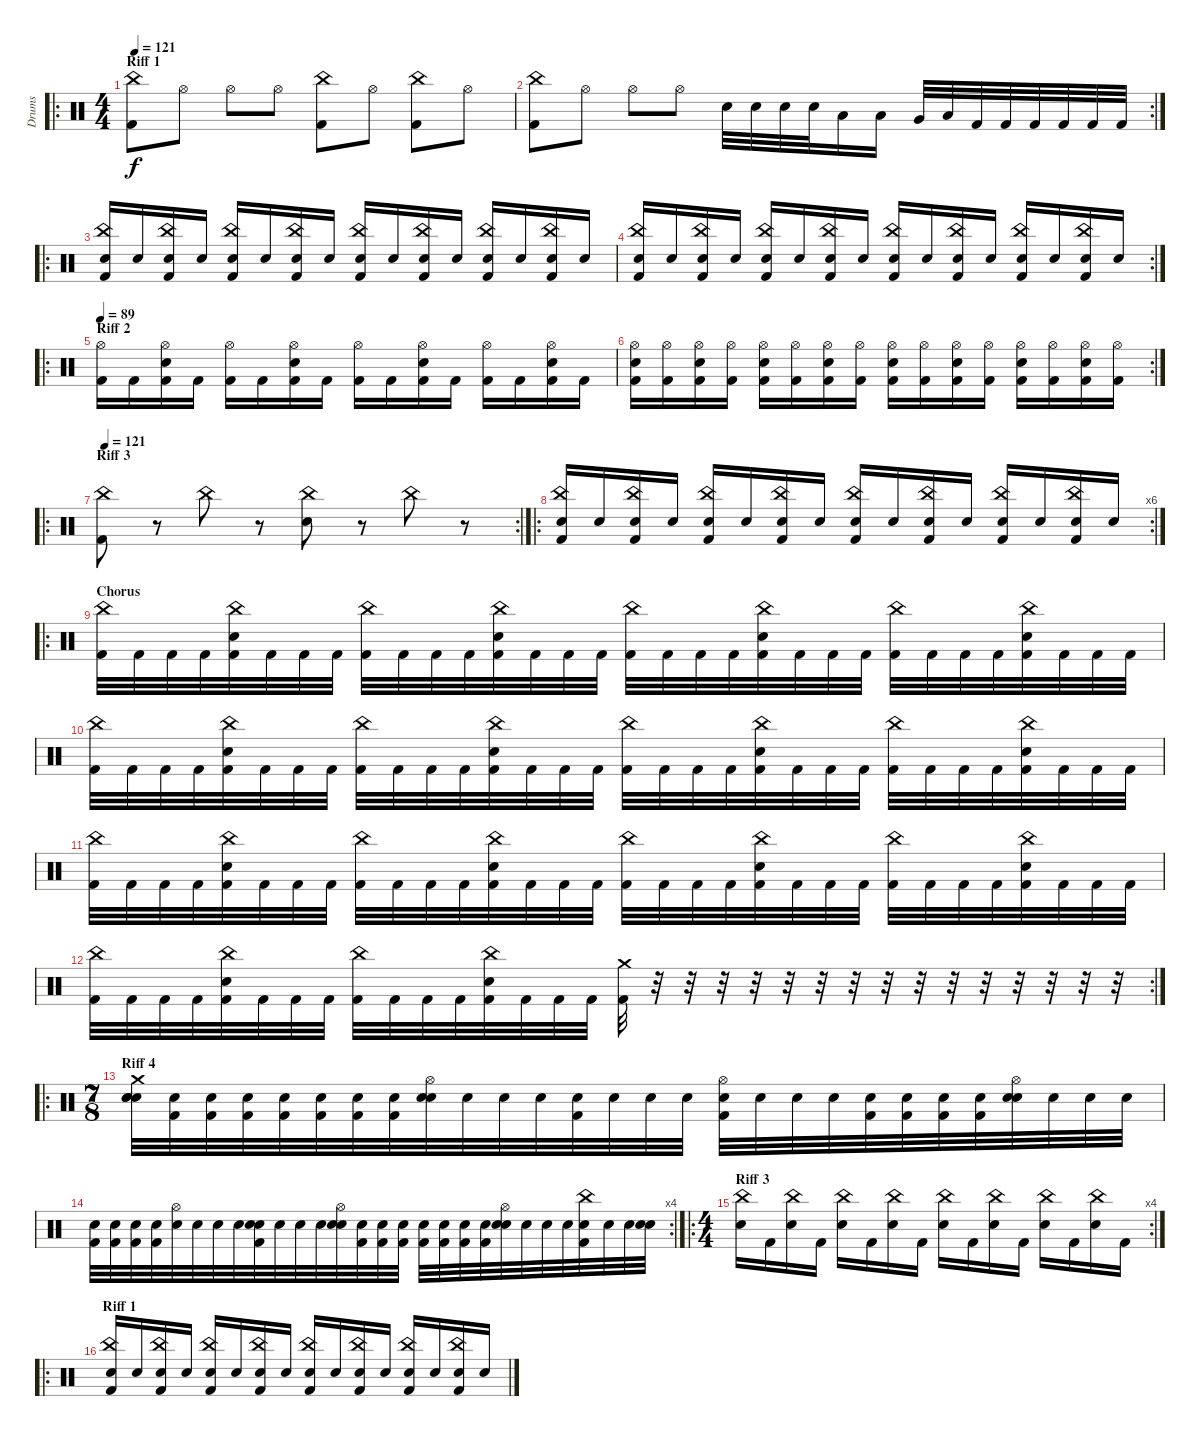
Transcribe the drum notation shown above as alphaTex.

\track ("Drums" "Drums") {instrument percussion}
\staff {score}
\articulation defaults
\ro
\ts (4 4)
\section ("" "Riff 1")
\tempo 121
\clef neutral
\ks c
("Kick (hit) 2" "China (hit)").8{dy f} "Hi-Hat (open)".8 "Hi-Hat (open)".8 "Hi-Hat (open)".8 ("Kick (hit) 2" "China (hit)").8 "Hi-Hat (open)".8 ("Kick (hit) 2" "China (hit)").8 "Hi-Hat (open)".8 |
\rc 2
("Kick (hit) 2" "China (hit)").8 "Hi-Hat (open)".8 "Hi-Hat (open)".8 "Hi-Hat (open)".8 "Snare (hit) 2".32 "Snare (hit) 2".32 "Snare (hit) 2".32 "Snare (hit) 2".32 "Low Tom (hit)".16 "Low Tom (hit)".16 "Very Low Tom (hit)".32 "Low Floor Tom (hit)".32 "Kick (hit) 2".32 "Kick (hit) 2".32 "Kick (hit) 2".32 "Kick (hit) 2".32 "Kick (hit) 2".32 "Kick (hit) 2".32 |
\ro
("China (hit)" "Kick (hit) 2" "Snare (hit) 2").16 "Snare (hit) 2".16 ("China (hit)" "Kick (hit) 2" "Snare (hit) 2").16 "Snare (hit) 2".16 ("China (hit)" "Kick (hit) 2" "Snare (hit) 2").16 "Snare (hit) 2".16 ("China (hit)" "Kick (hit) 2" "Snare (hit) 2").16 "Snare (hit) 2".16 ("China (hit)" "Kick (hit) 2" "Snare (hit) 2").16 "Snare (hit) 2".16 ("China (hit)" "Kick (hit) 2" "Snare (hit) 2").16 "Snare (hit) 2".16 ("China (hit)" "Kick (hit) 2" "Snare (hit) 2").16 "Snare (hit) 2".16 ("China (hit)" "Kick (hit) 2" "Snare (hit) 2").16 "Snare (hit) 2".16 |
\rc 2
("China (hit)" "Kick (hit) 2" "Snare (hit) 2").16 "Snare (hit) 2".16 ("China (hit)" "Kick (hit) 2" "Snare (hit) 2").16 "Snare (hit) 2".16 ("China (hit)" "Kick (hit) 2" "Snare (hit) 2").16 "Snare (hit) 2".16 ("China (hit)" "Kick (hit) 2" "Snare (hit) 2").16 "Snare (hit) 2".16 ("China (hit)" "Kick (hit) 2" "Snare (hit) 2").16 "Snare (hit) 2".16 ("China (hit)" "Kick (hit) 2" "Snare (hit) 2").16 "Snare (hit) 2".16 ("China (hit)" "Kick (hit) 2" "Snare (hit) 2").16 "Snare (hit) 2".16 ("China (hit)" "Kick (hit) 2" "Snare (hit) 2").16 "Snare (hit) 2".16 |
\ro
\section ("" "Riff 2")
\tempo 89
("Kick (hit) 2" "Hi-Hat (open)").16 "Kick (hit) 2".16 ("Kick (hit) 2" "Snare (hit) 2" "Hi-Hat (open)").16 "Kick (hit) 2".16 ("Kick (hit) 2" "Hi-Hat (open)").16 "Kick (hit) 2".16 ("Kick (hit) 2" "Snare (hit) 2" "Hi-Hat (open)").16 "Kick (hit) 2".16 ("Kick (hit) 2" "Hi-Hat (open)").16 "Kick (hit) 2".16 ("Kick (hit) 2" "Snare (hit) 2" "Hi-Hat (open)").16 "Kick (hit) 2".16 ("Kick (hit) 2" "Hi-Hat (open)").16 "Kick (hit) 2".16 ("Kick (hit) 2" "Snare (hit) 2" "Hi-Hat (open)").16 "Kick (hit) 2".16 |
\rc 2
("Kick (hit) 2" "Snare (hit) 2" "Hi-Hat (open)").16 ("Kick (hit) 2" "Hi-Hat (open)").16 ("Kick (hit) 2" "Snare (hit) 2" "Hi-Hat (open)").16 ("Kick (hit) 2" "Hi-Hat (open)").16 ("Kick (hit) 2" "Snare (hit) 2" "Hi-Hat (open)").16 ("Kick (hit) 2" "Hi-Hat (open)").16 ("Kick (hit) 2" "Snare (hit) 2" "Hi-Hat (open)").16 ("Kick (hit) 2" "Hi-Hat (open)").16 ("Kick (hit) 2" "Snare (hit) 2" "Hi-Hat (open)").16 ("Kick (hit) 2" "Hi-Hat (open)").16 ("Kick (hit) 2" "Snare (hit) 2" "Hi-Hat (open)").16 ("Kick (hit) 2" "Hi-Hat (open)").16 ("Kick (hit) 2" "Snare (hit) 2" "Hi-Hat (open)").16 ("Kick (hit) 2" "Hi-Hat (open)").16 ("Kick (hit) 2" "Snare (hit) 2" "Hi-Hat (open)").16 ("Kick (hit) 2" "Hi-Hat (open)").16 |
\ro
\rc 2
\section ("" "Riff 3")
\tempo 121
("Kick (hit) 2" "China (hit)").8 r.8 "China (hit)".8 r.8 ("Snare (hit) 2" "China (hit)").8 r.8 "China (hit)".8 r.8 |
\ro
\rc 6
("China (hit)" "Kick (hit) 2" "Snare (hit) 2").16 "Snare (hit) 2".16 ("China (hit)" "Kick (hit) 2" "Snare (hit) 2").16 "Snare (hit) 2".16 ("China (hit)" "Kick (hit) 2" "Snare (hit) 2").16 "Snare (hit) 2".16 ("China (hit)" "Kick (hit) 2" "Snare (hit) 2").16 "Snare (hit) 2".16 ("China (hit)" "Kick (hit) 2" "Snare (hit) 2").16 "Snare (hit) 2".16 ("China (hit)" "Kick (hit) 2" "Snare (hit) 2").16 "Snare (hit) 2".16 ("China (hit)" "Kick (hit) 2" "Snare (hit) 2").16 "Snare (hit) 2".16 ("China (hit)" "Kick (hit) 2" "Snare (hit) 2").16 "Snare (hit) 2".16 |
\ro
\section ("" "Chorus")
("Kick (hit) 2" "China (hit)").32 "Kick (hit) 2".32 "Kick (hit) 2".32 "Kick (hit) 2".32 ("Kick (hit) 2" "Snare (hit) 2" "China (hit)").32 "Kick (hit) 2".32 "Kick (hit) 2".32 "Kick (hit) 2".32 ("Kick (hit) 2" "China (hit)").32 "Kick (hit) 2".32 "Kick (hit) 2".32 "Kick (hit) 2".32 ("Kick (hit) 2" "Snare (hit) 2" "China (hit)").32 "Kick (hit) 2".32 "Kick (hit) 2".32 "Kick (hit) 2".32 ("Kick (hit) 2" "China (hit)").32 "Kick (hit) 2".32 "Kick (hit) 2".32 "Kick (hit) 2".32 ("Kick (hit) 2" "Snare (hit) 2" "China (hit)").32 "Kick (hit) 2".32 "Kick (hit) 2".32 "Kick (hit) 2".32 ("Kick (hit) 2" "China (hit)").32 "Kick (hit) 2".32 "Kick (hit) 2".32 "Kick (hit) 2".32 ("Kick (hit) 2" "Snare (hit) 2" "China (hit)").32 "Kick (hit) 2".32 "Kick (hit) 2".32 "Kick (hit) 2".32 |
("Kick (hit) 2" "China (hit)").32 "Kick (hit) 2".32 "Kick (hit) 2".32 "Kick (hit) 2".32 ("Kick (hit) 2" "Snare (hit) 2" "China (hit)").32 "Kick (hit) 2".32 "Kick (hit) 2".32 "Kick (hit) 2".32 ("Kick (hit) 2" "China (hit)").32 "Kick (hit) 2".32 "Kick (hit) 2".32 "Kick (hit) 2".32 ("Kick (hit) 2" "Snare (hit) 2" "China (hit)").32 "Kick (hit) 2".32 "Kick (hit) 2".32 "Kick (hit) 2".32 ("Kick (hit) 2" "China (hit)").32 "Kick (hit) 2".32 "Kick (hit) 2".32 "Kick (hit) 2".32 ("Kick (hit) 2" "Snare (hit) 2" "China (hit)").32 "Kick (hit) 2".32 "Kick (hit) 2".32 "Kick (hit) 2".32 ("Kick (hit) 2" "China (hit)").32 "Kick (hit) 2".32 "Kick (hit) 2".32 "Kick (hit) 2".32 ("Kick (hit) 2" "Snare (hit) 2" "China (hit)").32 "Kick (hit) 2".32 "Kick (hit) 2".32 "Kick (hit) 2".32 |
("Kick (hit) 2" "China (hit)").32 "Kick (hit) 2".32 "Kick (hit) 2".32 "Kick (hit) 2".32 ("Kick (hit) 2" "Snare (hit) 2" "China (hit)").32 "Kick (hit) 2".32 "Kick (hit) 2".32 "Kick (hit) 2".32 ("Kick (hit) 2" "China (hit)").32 "Kick (hit) 2".32 "Kick (hit) 2".32 "Kick (hit) 2".32 ("Kick (hit) 2" "Snare (hit) 2" "China (hit)").32 "Kick (hit) 2".32 "Kick (hit) 2".32 "Kick (hit) 2".32 ("Kick (hit) 2" "China (hit)").32 "Kick (hit) 2".32 "Kick (hit) 2".32 "Kick (hit) 2".32 ("Kick (hit) 2" "Snare (hit) 2" "China (hit)").32 "Kick (hit) 2".32 "Kick (hit) 2".32 "Kick (hit) 2".32 ("Kick (hit) 2" "China (hit)").32 "Kick (hit) 2".32 "Kick (hit) 2".32 "Kick (hit) 2".32 ("Kick (hit) 2" "Snare (hit) 2" "China (hit)").32 "Kick (hit) 2".32 "Kick (hit) 2".32 "Kick (hit) 2".32 |
\rc 2
("Kick (hit) 2" "China (hit)").32 "Kick (hit) 2".32 "Kick (hit) 2".32 "Kick (hit) 2".32 ("Kick (hit) 2" "Snare (hit) 2" "China (hit)").32 "Kick (hit) 2".32 "Kick (hit) 2".32 "Kick (hit) 2".32 ("Kick (hit) 2" "China (hit)").32 "Kick (hit) 2".32 "Kick (hit) 2".32 "Kick (hit) 2".32 ("Kick (hit) 2" "Snare (hit) 2" "China (hit)").32 "Kick (hit) 2".32 "Kick (hit) 2".32 "Kick (hit) 2".32 ("Kick (hit) 2" "Crash medium (hit)").32 r.32 r.32 r.32 r.32 r.32 r.32 r.32 r.32 r.32 r.32 r.32 r.32 r.32 r.32 r.32 |
\ro
\ts (7 8)
\section ("" "Riff 4")
("Snare (hit)" "Snare (hit)" "Snare (hit) 2" "Crash medium (hit)").32 ("Snare (hit)" "Kick (hit) 2").32 ("Snare (hit)" "Kick (hit) 2").32 ("Snare (hit)" "Kick (hit) 2").32 ("Snare (hit)" "Kick (hit) 2").32 ("Snare (hit)" "Kick (hit) 2").32 ("Snare (hit)" "Kick (hit) 2").32 ("Snare (hit)" "Kick (hit) 2").32 ("Snare (hit)" "Snare (hit) 2" "Hi-Hat (open)").32 "Snare (hit)".32 "Snare (hit)".32 "Snare (hit)".32 ("Snare (hit)" "Kick (hit) 2").32 "Snare (hit)".32 "Snare (hit)".32 "Snare (hit)".32 ("Snare (hit)" "Kick (hit) 2" "Hi-Hat (open)").32 "Snare (hit)".32 "Snare (hit)".32 "Snare (hit)".32 ("Snare (hit)" "Kick (hit) 2").32 ("Snare (hit)" "Kick (hit) 2").32 ("Snare (hit)" "Kick (hit) 2").32 ("Snare (hit)" "Kick (hit) 2").32 ("Snare (hit)" "Snare (hit) 2" "Hi-Hat (open)").32 "Snare (hit)".32 "Snare (hit)".32 "Snare (hit)".32 |
\rc 4
("Snare (hit)" "Kick (hit) 2").32 ("Snare (hit)" "Kick (hit) 2").32 ("Snare (hit)" "Kick (hit) 2").32 ("Snare (hit)" "Kick (hit) 2").32 ("Snare (hit)" "Hi-Hat (open)").32 "Snare (hit)".32 "Snare (hit)".32 "Snare (hit)".32 ("Snare (hit)" "Kick (hit) 2" "Snare (hit) 2").32 "Snare (hit)".32 "Snare (hit)".32 "Snare (hit)".32 ("Snare (hit)" "Snare (hit) 2" "Hi-Hat (open)").32 ("Snare (hit)" "Kick (hit) 2").32 ("Snare (hit)" "Kick (hit) 2").32 ("Snare (hit)" "Kick (hit) 2").32 ("Snare (hit)" "Kick (hit) 2").32 ("Snare (hit)" "Kick (hit) 2").32 ("Snare (hit)" "Kick (hit) 2").32 ("Snare (hit)" "Kick (hit) 2").32 ("Snare (hit)" "Snare (hit) 2" "Hi-Hat (open)").32 "Snare (hit)".32 "Snare (hit)".32 "Snare (hit)".32 ("Snare (hit)" "Kick (hit) 2" "China (hit)").32 "Snare (hit)".32 "Snare (hit)".32 ("Snare (hit)" "Snare (hit)").32 |
\ro
\rc 4
\ts (4 4)
\section ("" "Riff 3")
("China (hit)" "Snare (hit) 2").16 "Kick (hit) 2".16 ("China (hit)" "Snare (hit) 2").16 "Kick (hit) 2".16 ("China (hit)" "Snare (hit) 2").16 "Kick (hit) 2".16 ("China (hit)" "Snare (hit) 2").16 "Kick (hit) 2".16 ("China (hit)" "Snare (hit) 2").16 "Kick (hit) 2".16 ("China (hit)" "Snare (hit) 2").16 "Kick (hit) 2".16 ("China (hit)" "Snare (hit) 2").16 "Kick (hit) 2".16 ("China (hit)" "Snare (hit) 2").16 "Kick (hit) 2".16 |
\ro
\section ("" "Riff 1")
("China (hit)" "Kick (hit) 2" "Snare (hit) 2").16 "Snare (hit) 2".16 ("China (hit)" "Kick (hit) 2" "Snare (hit) 2").16 "Snare (hit) 2".16 ("China (hit)" "Kick (hit) 2" "Snare (hit) 2").16 "Snare (hit) 2".16 ("China (hit)" "Kick (hit) 2" "Snare (hit) 2").16 "Snare (hit) 2".16 ("China (hit)" "Kick (hit) 2" "Snare (hit) 2").16 "Snare (hit) 2".16 ("China (hit)" "Kick (hit) 2" "Snare (hit) 2").16 "Snare (hit) 2".16 ("China (hit)" "Kick (hit) 2" "Snare (hit) 2").16 "Snare (hit) 2".16 ("China (hit)" "Kick (hit) 2" "Snare (hit) 2").16 "Snare (hit) 2".16
